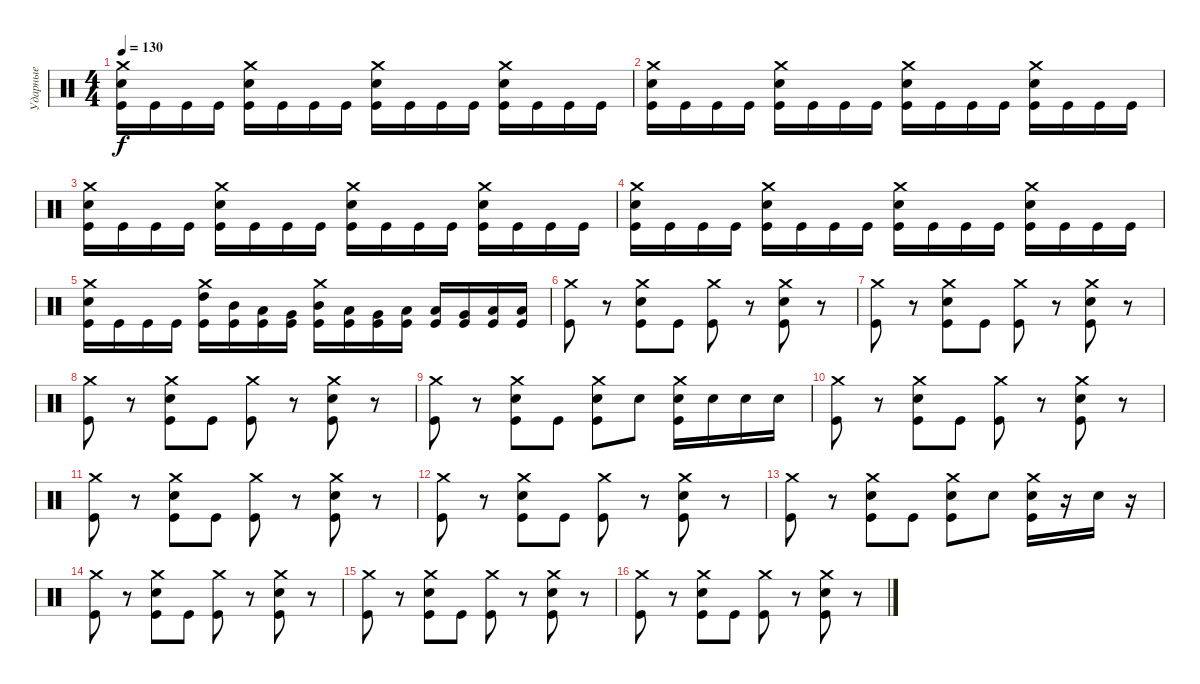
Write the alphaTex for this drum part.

\track ("Ударные" "Ударные") {instrument percussion}
\staff {score}
\articulation defaults
\ts (4 4)
\tempo 130
\clef neutral
\ks c
("Crash medium (hit)" "Electric Snare (hit)" "Kick (hit)").16{dy f} "Kick (hit)".16 "Kick (hit)".16 "Kick (hit)".16 ("Crash medium (hit)" "Electric Snare (hit)" "Kick (hit)").16 "Kick (hit)".16 "Kick (hit)".16 "Kick (hit)".16 ("Crash medium (hit)" "Electric Snare (hit)" "Kick (hit)").16 "Kick (hit)".16 "Kick (hit)".16 "Kick (hit)".16 ("Crash medium (hit)" "Electric Snare (hit)" "Kick (hit)").16 "Kick (hit)".16 "Kick (hit)".16 "Kick (hit)".16 |
("Crash medium (hit)" "Electric Snare (hit)" "Kick (hit)").16 "Kick (hit)".16 "Kick (hit)".16 "Kick (hit)".16 ("Crash medium (hit)" "Electric Snare (hit)" "Kick (hit)").16 "Kick (hit)".16 "Kick (hit)".16 "Kick (hit)".16 ("Crash medium (hit)" "Electric Snare (hit)" "Kick (hit)").16 "Kick (hit)".16 "Kick (hit)".16 "Kick (hit)".16 ("Crash medium (hit)" "Electric Snare (hit)" "Kick (hit)").16 "Kick (hit)".16 "Kick (hit)".16 "Kick (hit)".16 |
("Crash medium (hit)" "Electric Snare (hit)" "Kick (hit)").16 "Kick (hit)".16 "Kick (hit)".16 "Kick (hit)".16 ("Crash medium (hit)" "Electric Snare (hit)" "Kick (hit)").16 "Kick (hit)".16 "Kick (hit)".16 "Kick (hit)".16 ("Crash medium (hit)" "Electric Snare (hit)" "Kick (hit)").16 "Kick (hit)".16 "Kick (hit)".16 "Kick (hit)".16 ("Crash medium (hit)" "Electric Snare (hit)" "Kick (hit)").16 "Kick (hit)".16 "Kick (hit)".16 "Kick (hit)".16 |
("Crash medium (hit)" "Electric Snare (hit)" "Kick (hit)").16 "Kick (hit)".16 "Kick (hit)".16 "Kick (hit)".16 ("Crash medium (hit)" "Electric Snare (hit)" "Kick (hit)").16 "Kick (hit)".16 "Kick (hit)".16 "Kick (hit)".16 ("Crash medium (hit)" "Electric Snare (hit)" "Kick (hit)").16 "Kick (hit)".16 "Kick (hit)".16 "Kick (hit)".16 ("Crash medium (hit)" "Electric Snare (hit)" "Kick (hit)").16 "Kick (hit)".16 "Kick (hit)".16 "Kick (hit)".16 |
("Crash medium (hit)" "Electric Snare (hit)" "Kick (hit)").16 "Kick (hit)".16 "Kick (hit)".16 "Kick (hit)".16 ("Crash medium (hit)" "High Tom (hit)" "Kick (hit)").16 ("Mid Tom (hit)" "Kick (hit)").16 ("Low Tom (hit)" "Kick (hit)").16 ("Very Low Tom (hit)" "Kick (hit)").16 ("Crash medium (hit)" "Mid Tom (hit)" "Kick (hit)").16 ("Low Tom (hit)" "Kick (hit)").16 ("Very Low Tom (hit)" "Kick (hit)").16 ("Low Floor Tom (hit)" "Kick (hit)").16 ("Low Tom (hit)" "Kick (hit)").16 ("Very Low Tom (hit)" "Kick (hit)").16 ("Low Floor Tom (hit)" "Kick (hit)").16 ("Low Floor Tom (hit)" "Kick (hit)").16 |
("Crash medium (hit)" "Kick (hit)").8 r.8 ("Crash medium (hit)" "Electric Snare (hit)" "Kick (hit)").8 "Kick (hit)".8 ("Crash medium (hit)" "Kick (hit)").8 r.8 ("Crash medium (hit)" "Electric Snare (hit)" "Kick (hit)").8 r.8 |
("Crash medium (hit)" "Kick (hit)").8 r.8 ("Crash medium (hit)" "Electric Snare (hit)" "Kick (hit)").8 "Kick (hit)".8 ("Crash medium (hit)" "Kick (hit)").8 r.8 ("Crash medium (hit)" "Electric Snare (hit)" "Kick (hit)").8 r.8 |
("Crash medium (hit)" "Kick (hit)").8 r.8 ("Crash medium (hit)" "Electric Snare (hit)" "Kick (hit)").8 "Kick (hit)".8 ("Crash medium (hit)" "Kick (hit)").8 r.8 ("Crash medium (hit)" "Electric Snare (hit)" "Kick (hit)").8 r.8 |
("Crash medium (hit)" "Kick (hit)").8 r.8 ("Crash medium (hit)" "Electric Snare (hit)" "Kick (hit)").8 "Kick (hit)".8 ("Crash medium (hit)" "Electric Snare (hit)" "Kick (hit)").8 "Electric Snare (hit)".8 ("Crash medium (hit)" "Electric Snare (hit)" "Kick (hit)").16 "Electric Snare (hit)".16 "Electric Snare (hit)".16 "Electric Snare (hit)".16 |
("Crash medium (hit)" "Kick (hit)").8 r.8 ("Crash medium (hit)" "Electric Snare (hit)" "Kick (hit)").8 "Kick (hit)".8 ("Crash medium (hit)" "Kick (hit)").8 r.8 ("Crash medium (hit)" "Electric Snare (hit)" "Kick (hit)").8 r.8 |
("Crash medium (hit)" "Kick (hit)").8 r.8 ("Crash medium (hit)" "Electric Snare (hit)" "Kick (hit)").8 "Kick (hit)".8 ("Crash medium (hit)" "Kick (hit)").8 r.8 ("Crash medium (hit)" "Electric Snare (hit)" "Kick (hit)").8 r.8 |
("Crash medium (hit)" "Kick (hit)").8 r.8 ("Crash medium (hit)" "Electric Snare (hit)" "Kick (hit)").8 "Kick (hit)".8 ("Crash medium (hit)" "Kick (hit)").8 r.8 ("Crash medium (hit)" "Electric Snare (hit)" "Kick (hit)").8 r.8 |
("Crash medium (hit)" "Kick (hit)").8 r.8 ("Crash medium (hit)" "Electric Snare (hit)" "Kick (hit)").8 "Kick (hit)".8 ("Crash medium (hit)" "Electric Snare (hit)" "Kick (hit)").8 "Electric Snare (hit)".8 ("Crash medium (hit)" "Electric Snare (hit)" "Kick (hit)").16 r.16 "Electric Snare (hit)".16 r.16 |
("Crash medium (hit)" "Kick (hit)").8 r.8 ("Crash medium (hit)" "Electric Snare (hit)" "Kick (hit)").8 "Kick (hit)".8 ("Crash medium (hit)" "Kick (hit)").8 r.8 ("Crash medium (hit)" "Electric Snare (hit)" "Kick (hit)").8 r.8 |
("Crash medium (hit)" "Kick (hit)").8 r.8 ("Crash medium (hit)" "Electric Snare (hit)" "Kick (hit)").8 "Kick (hit)".8 ("Crash medium (hit)" "Kick (hit)").8 r.8 ("Crash medium (hit)" "Electric Snare (hit)" "Kick (hit)").8 r.8 |
("Crash medium (hit)" "Kick (hit)").8 r.8 ("Crash medium (hit)" "Electric Snare (hit)" "Kick (hit)").8 "Kick (hit)".8 ("Crash medium (hit)" "Kick (hit)").8 r.8 ("Crash medium (hit)" "Electric Snare (hit)" "Kick (hit)").8 r.8
